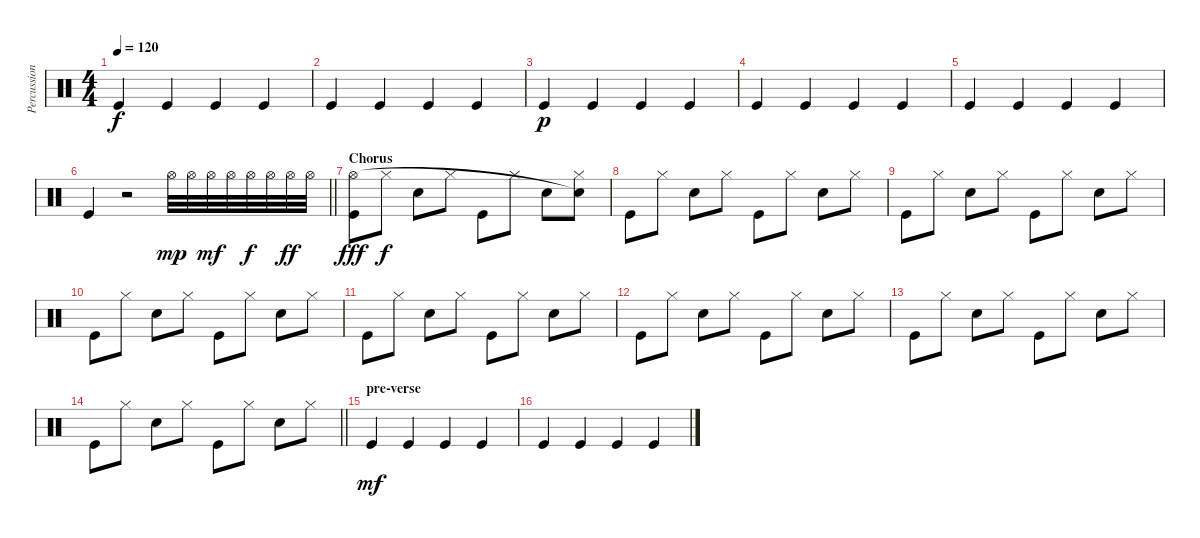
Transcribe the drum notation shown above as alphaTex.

\track ("Percussion" "Percussion") {instrument percussion}
\staff {score}
\articulation defaults
\ts (4 4)
\tempo 120
\clef neutral
\ks c "Kick (hit)".4{dy f} "Kick (hit)".4 "Kick (hit)".4 "Kick (hit)".4
|
"Kick (hit)".4 "Kick (hit)".4 "Kick (hit)".4 "Kick (hit)".4 |
"Kick (hit)".4{dy p} "Kick (hit)".4 "Kick (hit)".4 "Kick (hit)".4 |
"Kick (hit)".4 "Kick (hit)".4 "Kick (hit)".4 "Kick (hit)".4 |
"Kick (hit)".4 "Kick (hit)".4 "Kick (hit)".4 "Kick (hit)".4 |
\barLineRight lightlight "Kick (hit)".4
r.2 "Hi-Hat (open)".32{dy mp} "Hi-Hat (open)".32 "Hi-Hat (open)".32{dy mf} "Hi-Hat (open)".32 "Hi-Hat (open)".32{dy f} "Hi-Hat (open)".32 "Hi-Hat (open)".32{dy ff} "Hi-Hat (open)".32 |
\section ("" "Chorus")
("Kick (hit)" "Hi-Hat (open)").8{dy fff} "Hi-Hat (closed)".8{dy f} "Snare (hit) 2".8 "Hi-Hat (closed)".8 "Kick (hit)".8 "Hi-Hat (closed)".8 "Snare (hit) 2".8 ("Hi-Hat (closed)" "Snare (hit)"{t}).8 |
"Kick (hit)".8 "Hi-Hat (closed)".8 "Snare (hit) 2".8 "Hi-Hat (closed)".8 "Kick (hit)".8 "Hi-Hat (closed)".8 "Snare (hit) 2".8 "Hi-Hat (closed)".8 |
"Kick (hit)".8 "Hi-Hat (closed)".8 "Snare (hit) 2".8 "Hi-Hat (closed)".8 "Kick (hit)".8 "Hi-Hat (closed)".8 "Snare (hit) 2".8 "Hi-Hat (closed)".8 |
"Kick (hit)".8 "Hi-Hat (closed)".8 "Snare (hit) 2".8 "Hi-Hat (closed)".8 "Kick (hit)".8 "Hi-Hat (closed)".8 "Snare (hit) 2".8 "Hi-Hat (closed)".8 |
"Kick (hit)".8 "Hi-Hat (closed)".8 "Snare (hit) 2".8 "Hi-Hat (closed)".8 "Kick (hit)".8 "Hi-Hat (closed)".8 "Snare (hit) 2".8 "Hi-Hat (closed)".8 |
"Kick (hit)".8 "Hi-Hat (closed)".8 "Snare (hit) 2".8 "Hi-Hat (closed)".8 "Kick (hit)".8 "Hi-Hat (closed)".8 "Snare (hit) 2".8 "Hi-Hat (closed)".8 |
"Kick (hit)".8 "Hi-Hat (closed)".8 "Snare (hit) 2".8 "Hi-Hat (closed)".8 "Kick (hit)".8 "Hi-Hat (closed)".8 "Snare (hit) 2".8 "Hi-Hat (closed)".8 |
\barLineRight lightlight "Kick (hit)".8 "Hi-Hat (closed)".8 "Snare (hit) 2".8 "Hi-Hat (closed)".8 "Kick (hit)".8 "Hi-Hat (closed)".8 "Snare (hit) 2".8 "Hi-Hat (closed)".8
|
\section ("" "pre-verse")
"Kick (hit)".4{dy mf} "Kick (hit)".4 "Kick (hit)".4 "Kick (hit)".4 |
"Kick (hit)".4 "Kick (hit)".4 "Kick (hit)".4 "Kick (hit)".4
